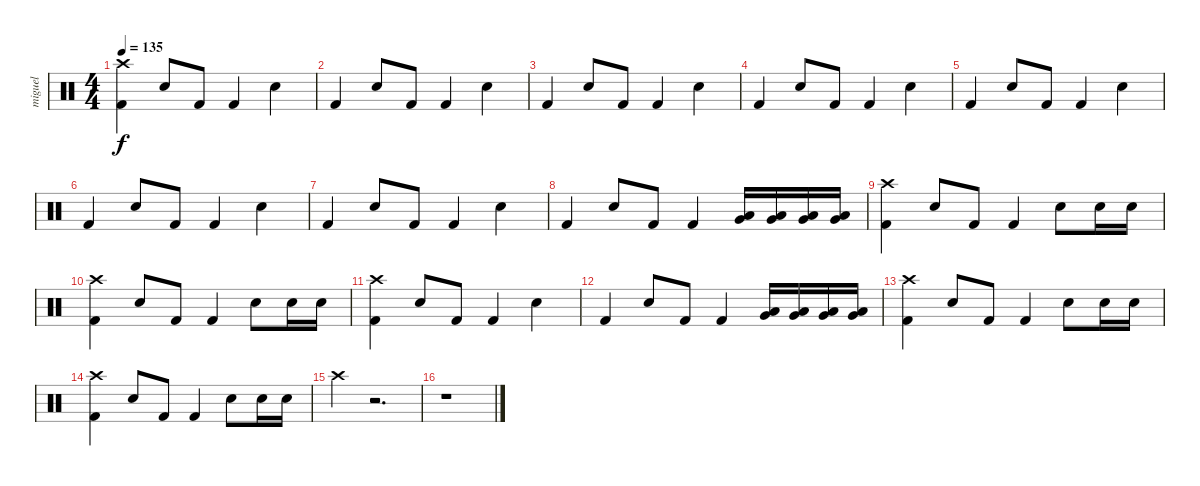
\track ("miguel" "miguel") {instrument percussion}
\staff {score}
\articulation defaults
\ts (4 4)
\tempo 135
\clef neutral
\ks c
("Kick (hit) 2" "Crash high (hit)").4{dy f} "Snare (hit) 2".8 "Kick (hit) 2".8 "Kick (hit) 2".4 "Snare (hit) 2".4 |
"Kick (hit) 2".4 "Snare (hit) 2".8 "Kick (hit) 2".8 "Kick (hit) 2".4 "Snare (hit) 2".4 |
"Kick (hit) 2".4 "Snare (hit) 2".8 "Kick (hit) 2".8 "Kick (hit) 2".4 "Snare (hit) 2".4 |
"Kick (hit) 2".4 "Snare (hit) 2".8 "Kick (hit) 2".8 "Kick (hit) 2".4 "Snare (hit) 2".4 |
"Kick (hit) 2".4 "Snare (hit) 2".8 "Kick (hit) 2".8 "Kick (hit) 2".4 "Snare (hit) 2".4 |
"Kick (hit) 2".4 "Snare (hit) 2".8 "Kick (hit) 2".8 "Kick (hit) 2".4 "Snare (hit) 2".4 |
"Kick (hit) 2".4 "Snare (hit) 2".8 "Kick (hit) 2".8 "Kick (hit) 2".4 "Snare (hit) 2".4 |
"Kick (hit) 2".4 "Snare (hit) 2".8 "Kick (hit) 2".8 "Kick (hit) 2".4 ("Very Low Tom (hit)" "Low Tom (hit)").16 ("Very Low Tom (hit)" "Low Tom (hit)").16 ("Very Low Tom (hit)" "Low Tom (hit)").16 ("Very Low Tom (hit)" "Low Tom (hit)").16 |
("Kick (hit) 2" "Crash high (hit)").4 "Snare (hit) 2".8 "Kick (hit) 2".8 "Kick (hit) 2".4 "Snare (hit) 2".8 "Snare (hit) 2".16 "Snare (hit) 2".16 |
("Kick (hit) 2" "Crash high (hit)").4 "Snare (hit) 2".8 "Kick (hit) 2".8 "Kick (hit) 2".4 "Snare (hit) 2".8 "Snare (hit) 2".16 "Snare (hit) 2".16 |
("Kick (hit) 2" "Crash high (hit)").4 "Snare (hit) 2".8 "Kick (hit) 2".8 "Kick (hit) 2".4 "Snare (hit) 2".4 |
"Kick (hit) 2".4 "Snare (hit) 2".8 "Kick (hit) 2".8 "Kick (hit) 2".4 ("Very Low Tom (hit)" "Low Tom (hit)").16 ("Very Low Tom (hit)" "Low Tom (hit)").16 ("Very Low Tom (hit)" "Low Tom (hit)").16 ("Very Low Tom (hit)" "Low Tom (hit)").16 |
("Kick (hit) 2" "Crash high (hit)").4 "Snare (hit) 2".8 "Kick (hit) 2".8 "Kick (hit) 2".4 "Snare (hit) 2".8 "Snare (hit) 2".16 "Snare (hit) 2".16 |
("Kick (hit) 2" "Crash high (hit)").4 "Snare (hit) 2".8 "Kick (hit) 2".8 "Kick (hit) 2".4 "Snare (hit) 2".8 "Snare (hit) 2".16 "Snare (hit) 2".16 |
"Crash high (hit)".4 r.2{d} |
r.1
